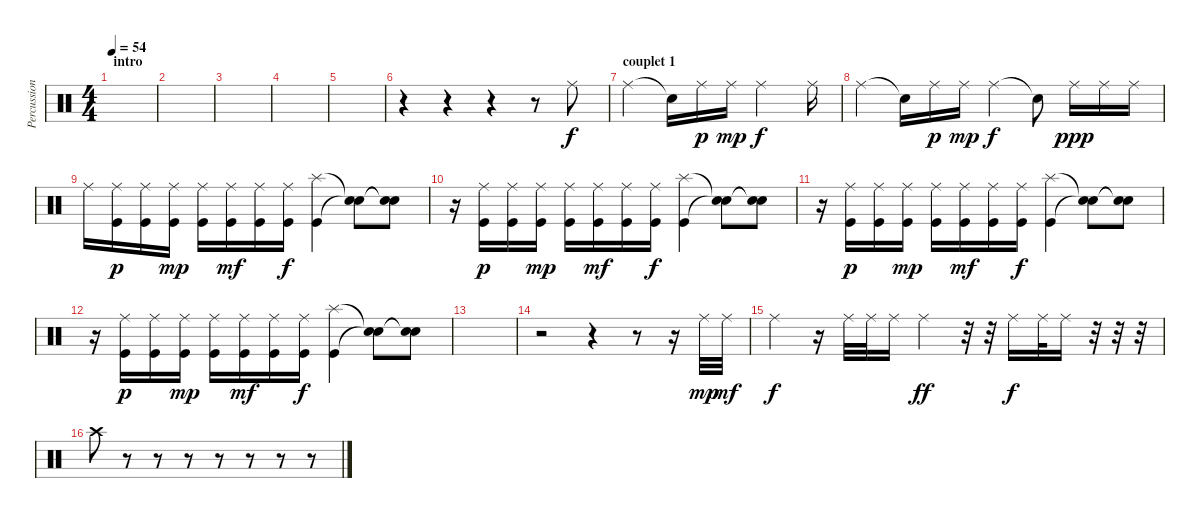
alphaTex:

\track ("Percussions" "Percussion") {instrument percussion}
\staff {score}
\articulation defaults
\ts (4 4)
\section ("" "intro")
\tempo 54
\clef neutral
\ks c
|
|
|
|
|
r.4 r.4 r.4 r.8 "Ride (middle)".8 |
\section ("" "couplet 1")
"Ride (middle)".4 "Snare (hit)"{t}.16 "Ride (middle)".16{dy p} "Ride (middle)".16{dy mp} "Ride (middle)".2{dy f} "Ride (middle)".16 |
"Ride (middle)".4 "Snare (hit)"{t}.16 "Ride (middle)".16{dy p} "Ride (middle)".16{dy mp} "Ride (middle)".4{dy f} "Snare (hit)"{t}.8 "Ride (middle)".16{dy ppp} "Ride (middle)".16 "Ride (middle)".16 |
"Ride (middle)".16 ("Ride (middle)" "Kick (hit)").16{dy p} ("Ride (middle)" "Kick (hit)").16 ("Ride (middle)" "Kick (hit)").16{dy mp} ("Ride (middle)" "Kick (hit)").16 ("Ride (middle)" "Kick (hit)").16{dy mf} ("Ride (middle)" "Kick (hit)").16 ("Ride (middle)" "Kick (hit)").16{dy f} ("Splash (hit)" "Kick (hit)").4 ("Snare (hit)"{t} "Snare (hit)"{t}).8 ("Snare (hit)"{t} "Snare (hit)"{t}).8 |
r.16 ("Ride (middle)" "Kick (hit)").16{dy p} ("Ride (middle)" "Kick (hit)").16 ("Ride (middle)" "Kick (hit)").16{dy mp} ("Ride (middle)" "Kick (hit)").16 ("Ride (middle)" "Kick (hit)").16{dy mf} ("Ride (middle)" "Kick (hit)").16 ("Ride (middle)" "Kick (hit)").16{dy f} ("Splash (hit)" "Kick (hit)").4 ("Snare (hit)"{t} "Snare (hit)"{t}).8 ("Snare (hit)"{t} "Snare (hit)"{t}).8 |
r.16 ("Ride (middle)" "Kick (hit)").16{dy p} ("Ride (middle)" "Kick (hit)").16 ("Ride (middle)" "Kick (hit)").16{dy mp} ("Ride (middle)" "Kick (hit)").16 ("Ride (middle)" "Kick (hit)").16{dy mf} ("Ride (middle)" "Kick (hit)").16 ("Ride (middle)" "Kick (hit)").16{dy f} ("Splash (hit)" "Kick (hit)").4 ("Snare (hit)"{t} "Snare (hit)"{t}).8 ("Snare (hit)"{t} "Snare (hit)"{t}).8 |
r.16 ("Ride (middle)" "Kick (hit)").16{dy p} ("Ride (middle)" "Kick (hit)").16 ("Ride (middle)" "Kick (hit)").16{dy mp} ("Ride (middle)" "Kick (hit)").16 ("Ride (middle)" "Kick (hit)").16{dy mf} ("Ride (middle)" "Kick (hit)").16 ("Ride (middle)" "Kick (hit)").16{dy f} ("Splash (hit)" "Kick (hit)").4 ("Snare (hit)"{t} "Snare (hit)"{t}).8 ("Snare (hit)"{t} "Snare (hit)"{t}).8 |
|
r.2 r.4 r.8 r.16 "Ride (middle)".32{dy mp} "Ride (middle)".32{dy mf} |
"Ride (middle)".4{dy f} r.16 "Ride (middle)".32 "Ride (middle)".32 "Ride (middle)".16 "Ride (middle)".4{dy ff} r.32 r.32 "Ride (middle)".16{dy f} "Ride (middle)".32 "Ride (middle)".16 r.32 r.32 r.32 |
"Crash high (hit)".8 r.8 r.8 r.8 r.8 r.8 r.8 r.8
